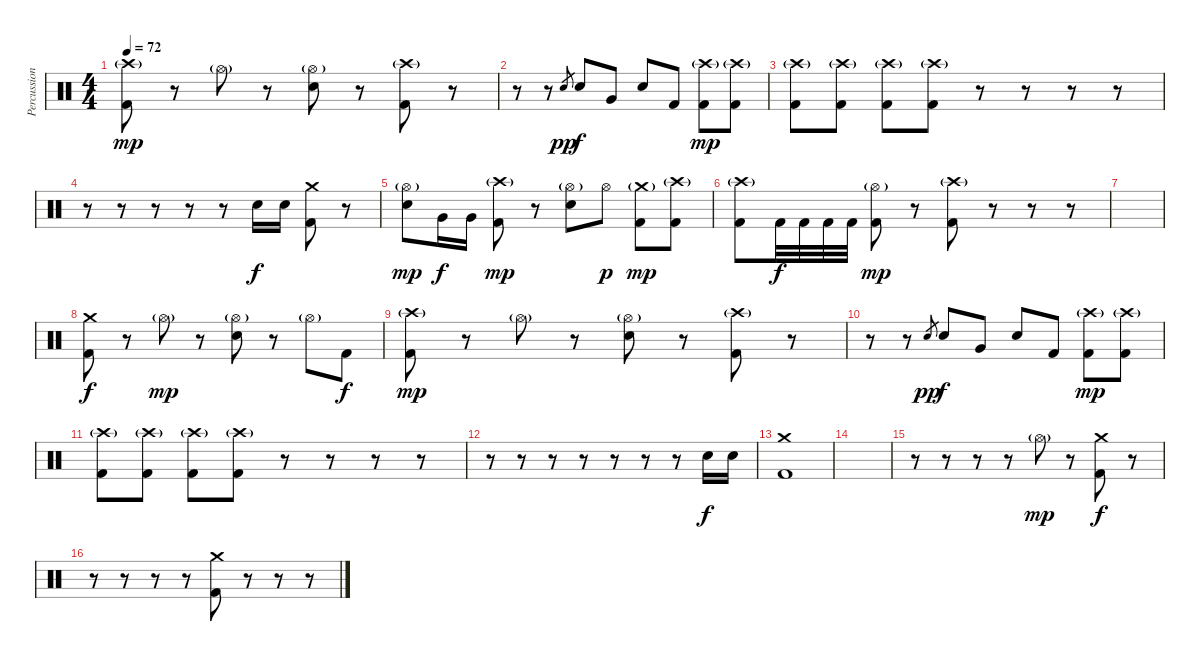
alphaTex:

\track ("Percussion" "Percussion") {instrument percussion}
\staff {score}
\articulation defaults
\ts (4 4)
\tempo 72
\clef neutral
\ks c
("Crash high (hit)"{g} "Kick (hit) 2").8{dy mp} r.8 "Hi-Hat (open)"{g}.8 r.8 ("Hi-Hat (open)"{g} "Electric Snare (hit)").8 r.8 ("Crash high (hit)"{g} "Kick (hit) 2").8 r.8 |
r.8 r.8 "Electric Snare (hit)".8{gr dy pp} "Electric Snare (hit)".8{dy f} "Very Low Tom (hit)".8 "Electric Snare (hit)".8 "Kick (hit) 2".8 ("Crash high (hit)"{g} "Kick (hit) 2").8{dy mp} ("Crash high (hit)"{g} "Kick (hit) 2").8 |
("Crash high (hit)"{g} "Kick (hit) 2").8 ("Crash high (hit)"{g} "Kick (hit) 2").8 ("Crash high (hit)"{g} "Kick (hit) 2").8 ("Crash high (hit)"{g} "Kick (hit) 2").8 r.8 r.8 r.8 r.8 |
r.8 r.8 r.8 r.8 r.8 "Electric Snare (hit)".16{dy f} "Electric Snare (hit)".16 ("Crash medium (hit)" "Kick (hit) 2").8 r.8 |
("Hi-Hat (open)"{g} "Electric Snare (hit)").8{dy mp} "Very Low Tom (hit)".16{dy f} "Very Low Tom (hit)".16 ("Crash high (hit)"{g} "Kick (hit) 2").8{dy mp} r.8 ("Hi-Hat (open)"{g} "Electric Snare (hit)").8 "Hi-Hat (open)".8{dy p} ("Crash medium (hit)"{g} "Kick (hit) 2").8{dy mp} ("Crash high (hit)"{g} "Kick (hit) 2").8 |
("Crash high (hit)"{g} "Kick (hit) 2").8 "Kick (hit) 2".32{dy f} "Kick (hit) 2".32 "Kick (hit) 2".32 "Kick (hit) 2".32 ("Hi-Hat (open)"{g} "Kick (hit) 2").8{dy mp} r.8 ("Crash high (hit)"{g} "Kick (hit) 2").8 r.8 r.8 r.8 |
|
("Crash medium (hit)" "Kick (hit) 2").8{dy f} r.8 "Hi-Hat (open)"{g}.8{dy mp} r.8 ("Hi-Hat (open)"{g} "Electric Snare (hit)").8 r.8 "Hi-Hat (open)"{g}.8 "Kick (hit) 2".8{dy f} |
("Crash high (hit)"{g} "Kick (hit) 2").8{dy mp} r.8 "Hi-Hat (open)"{g}.8 r.8 ("Hi-Hat (open)"{g} "Electric Snare (hit)").8 r.8 ("Crash high (hit)"{g} "Kick (hit) 2").8 r.8 |
r.8 r.8 "Electric Snare (hit)".8{gr dy pp} "Electric Snare (hit)".8{dy f} "Very Low Tom (hit)".8 "Electric Snare (hit)".8 "Kick (hit) 2".8 ("Crash high (hit)"{g} "Kick (hit) 2").8{dy mp} ("Crash high (hit)"{g} "Kick (hit) 2").8 |
("Crash high (hit)"{g} "Kick (hit) 2").8 ("Crash high (hit)"{g} "Kick (hit) 2").8 ("Crash high (hit)"{g} "Kick (hit) 2").8 ("Crash high (hit)"{g} "Kick (hit) 2").8 r.8 r.8 r.8 r.8 |
r.8 r.8 r.8 r.8 r.8 r.8 r.8 "Electric Snare (hit)".16{dy f} "Electric Snare (hit)".16 |
\section ("" "")
("Crash medium (hit)" "Kick (hit) 2").1 |
|
r.8 r.8 r.8 r.8 "Hi-Hat (open)"{g}.8{dy mp} r.8 ("Crash medium (hit)" "Kick (hit) 2").8{dy f} r.8 |
r.8 r.8 r.8 r.8 ("Crash medium (hit)" "Kick (hit) 2").8 r.8 r.8 r.8
